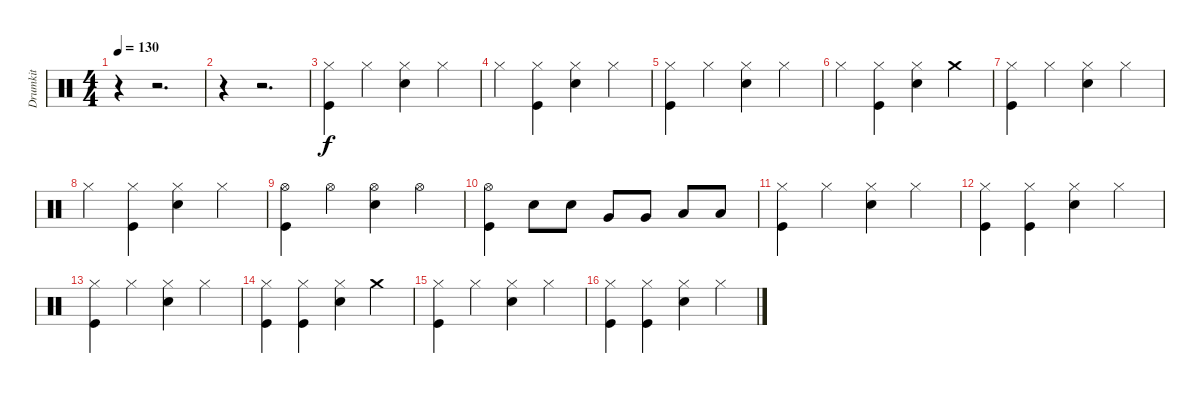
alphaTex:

\track ("Drumkit" "Drumkit") {instrument percussion}
\staff {score}
\articulation defaults
\ts (4 4)
\tempo 130
\clef neutral
\ks c
r.4{dy f} r.2{d} |
r.4 r.2{d} |
("Hi-Hat (closed)" "Kick (hit)").4 "Hi-Hat (closed)".4 ("Hi-Hat (closed)" "Snare (hit) 2").4 "Hi-Hat (closed)".4 |
"Hi-Hat (closed)".4 ("Hi-Hat (closed)" "Kick (hit)").4 ("Hi-Hat (closed)" "Snare (hit) 2").4 "Hi-Hat (closed)".4 |
("Hi-Hat (closed)" "Kick (hit)").4 "Hi-Hat (closed)".4 ("Hi-Hat (closed)" "Snare (hit) 2").4 "Hi-Hat (closed)".4 |
"Hi-Hat (closed)".4 ("Hi-Hat (closed)" "Kick (hit)").4 ("Hi-Hat (closed)" "Snare (hit) 2").4 "Crash medium (hit)".4 |
("Hi-Hat (closed)" "Kick (hit)").4 "Hi-Hat (closed)".4 ("Hi-Hat (closed)" "Snare (hit) 2").4 "Hi-Hat (closed)".4 |
"Hi-Hat (closed)".4 ("Hi-Hat (closed)" "Kick (hit)").4 ("Hi-Hat (closed)" "Snare (hit) 2").4 "Hi-Hat (closed)".4 |
("Hi-Hat (open)" "Kick (hit)").4 "Hi-Hat (open)".4 ("Hi-Hat (open)" "Snare (hit) 2").4 "Hi-Hat (open)".4 |
("Hi-Hat (open)" "Kick (hit)").4 "Snare (hit) 2".8 "Snare (hit) 2".8 "Very Low Tom (hit)".8 "Very Low Tom (hit)".8 "Low Tom (hit)".8 "Low Tom (hit)".8 |
("Hi-Hat (closed)" "Kick (hit)").4 "Hi-Hat (closed)".4 ("Hi-Hat (closed)" "Snare (hit) 2").4 "Hi-Hat (closed)".4 |
("Hi-Hat (closed)" "Kick (hit)").4 ("Hi-Hat (closed)" "Kick (hit)").4 ("Hi-Hat (closed)" "Snare (hit) 2").4 "Hi-Hat (closed)".4 |
("Hi-Hat (closed)" "Kick (hit)").4 "Hi-Hat (closed)".4 ("Hi-Hat (closed)" "Snare (hit) 2").4 "Hi-Hat (closed)".4 |
("Hi-Hat (closed)" "Kick (hit)").4 ("Hi-Hat (closed)" "Kick (hit)").4 ("Hi-Hat (closed)" "Snare (hit) 2").4 "Crash medium (hit)".4 |
("Hi-Hat (closed)" "Kick (hit)").4 "Hi-Hat (closed)".4 ("Hi-Hat (closed)" "Snare (hit) 2").4 "Hi-Hat (closed)".4 |
("Hi-Hat (closed)" "Kick (hit)").4 ("Hi-Hat (closed)" "Kick (hit)").4 ("Hi-Hat (closed)" "Snare (hit) 2").4 "Hi-Hat (closed)".4
